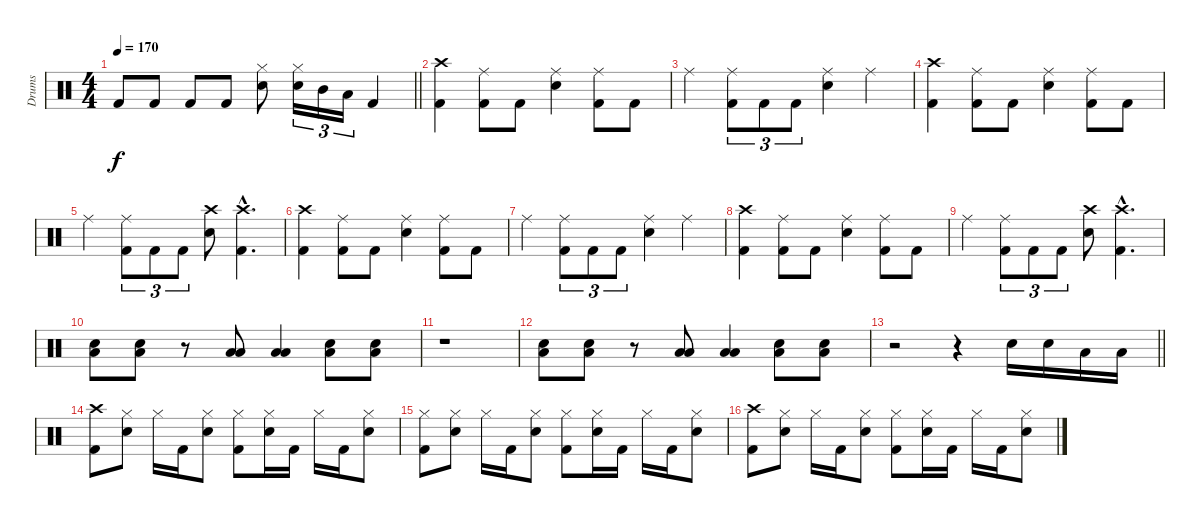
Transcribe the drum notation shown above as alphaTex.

\track ("Drums" "Drums") {instrument percussion}
\staff {score}
\articulation defaults
\ts (4 4)
\tempo 170
\clef neutral
\barLineRight lightlight
\ks c "Kick (hit) 2".8{dy f} "Kick (hit) 2".8 "Kick (hit) 2".8 "Kick (hit) 2".8
("Hi-Hat (closed)" "Snare (hit) 2").8 ("Hi-Hat (closed)" "Snare (hit) 2").16{tu (3 2)} "Mid Tom (hit)".16{tu (3 2)} "Low Floor Tom (hit)".16{tu (3 2)} "Kick (hit) 2".4 |
("Crash high (hit)" "Kick (hit) 2").4 ("Ride (middle)" "Kick (hit) 2").8 "Kick (hit) 2".8 ("Ride (middle)" "Snare (hit) 2").4 ("Ride (middle)" "Kick (hit) 2").8 "Kick (hit) 2".8 |
"Ride (middle)".4 ("Ride (middle)" "Kick (hit) 2").8{tu (3 2)} "Kick (hit) 2".8{tu (3 2)} "Kick (hit) 2".8{tu (3 2)} ("Ride (middle)" "Snare (hit) 2").4 "Ride (middle)".4 |
("Crash high (hit)" "Kick (hit) 2").4 ("Ride (middle)" "Kick (hit) 2").8 "Kick (hit) 2".8 ("Ride (middle)" "Snare (hit) 2").4 ("Ride (middle)" "Kick (hit) 2").8 "Kick (hit) 2".8 |
"Ride (middle)".4 ("Ride (middle)" "Kick (hit) 2").8{tu (3 2)} "Kick (hit) 2".8{tu (3 2)} "Kick (hit) 2".8{tu (3 2)} ("Crash high (hit)" "Snare (hit) 2").8 ("Crash high (hit)"{hac} "Kick (hit) 2"{hac}).4{d} |
("Crash high (hit)" "Kick (hit) 2").4 ("Ride (middle)" "Kick (hit) 2").8 "Kick (hit) 2".8 ("Ride (middle)" "Snare (hit) 2").4 ("Ride (middle)" "Kick (hit) 2").8 "Kick (hit) 2".8 |
"Ride (middle)".4 ("Ride (middle)" "Kick (hit) 2").8{tu (3 2)} "Kick (hit) 2".8{tu (3 2)} "Kick (hit) 2".8{tu (3 2)} ("Ride (middle)" "Snare (hit) 2").4 "Ride (middle)".4 |
("Crash high (hit)" "Kick (hit) 2").4 ("Ride (middle)" "Kick (hit) 2").8 "Kick (hit) 2".8 ("Ride (middle)" "Snare (hit) 2").4 ("Ride (middle)" "Kick (hit) 2").8 "Kick (hit) 2".8 |
"Ride (middle)".4 ("Ride (middle)" "Kick (hit) 2").8{tu (3 2)} "Kick (hit) 2".8{tu (3 2)} "Kick (hit) 2".8{tu (3 2)} ("Crash high (hit)" "Snare (hit) 2").8 ("Crash high (hit)"{hac} "Kick (hit) 2"{hac}).4{d} |
("Snare (hit) 2" "Low Floor Tom (hit)").8 ("Snare (hit) 2" "Low Floor Tom (hit)").8 r.8 ("Low Tom (hit)" "Low Floor Tom (hit)").8 ("Low Tom (hit)" "Low Floor Tom (hit)").4 ("Snare (hit) 2" "Low Floor Tom (hit)").8 ("Snare (hit) 2" "Low Floor Tom (hit)").8 |
r.1 |
("Snare (hit) 2" "Low Floor Tom (hit)").8 ("Snare (hit) 2" "Low Floor Tom (hit)").8 r.8 ("Low Tom (hit)" "Low Floor Tom (hit)").8 ("Low Tom (hit)" "Low Floor Tom (hit)").4 ("Snare (hit) 2" "Low Floor Tom (hit)").8 ("Snare (hit) 2" "Low Floor Tom (hit)").8 |
\barLineRight lightlight
r.2 r.4 "Snare (hit) 2".16 "Snare (hit) 2".16 "Low Tom (hit)".16 "Low Tom (hit)".16 |
("Crash high (hit)" "Kick (hit) 2").8 ("Hi-Hat (closed)" "Snare (hit) 2").8 "Hi-Hat (closed)".16 "Kick (hit) 2".16 ("Hi-Hat (closed)" "Snare (hit) 2").8 ("Hi-Hat (closed)" "Kick (hit) 2").8 ("Hi-Hat (closed)" "Snare (hit) 2").16 "Kick (hit) 2".16 "Hi-Hat (closed)".16 "Kick (hit) 2".16 ("Hi-Hat (closed)" "Snare (hit) 2").8 |
("Hi-Hat (closed)" "Kick (hit) 2").8 ("Hi-Hat (closed)" "Snare (hit) 2").8 "Hi-Hat (closed)".16 "Kick (hit) 2".16 ("Hi-Hat (closed)" "Snare (hit) 2").8 ("Hi-Hat (closed)" "Kick (hit) 2").8 ("Hi-Hat (closed)" "Snare (hit) 2").16 "Kick (hit) 2".16 "Hi-Hat (closed)".16 "Kick (hit) 2".16 ("Hi-Hat (closed)" "Snare (hit) 2").8 |
("Crash high (hit)" "Kick (hit) 2").8 ("Hi-Hat (closed)" "Snare (hit) 2").8 "Hi-Hat (closed)".16 "Kick (hit) 2".16 ("Hi-Hat (closed)" "Snare (hit) 2").8 ("Hi-Hat (closed)" "Kick (hit) 2").8 ("Hi-Hat (closed)" "Snare (hit) 2").16 "Kick (hit) 2".16 "Hi-Hat (closed)".16 "Kick (hit) 2".16 ("Hi-Hat (closed)" "Snare (hit) 2").8
